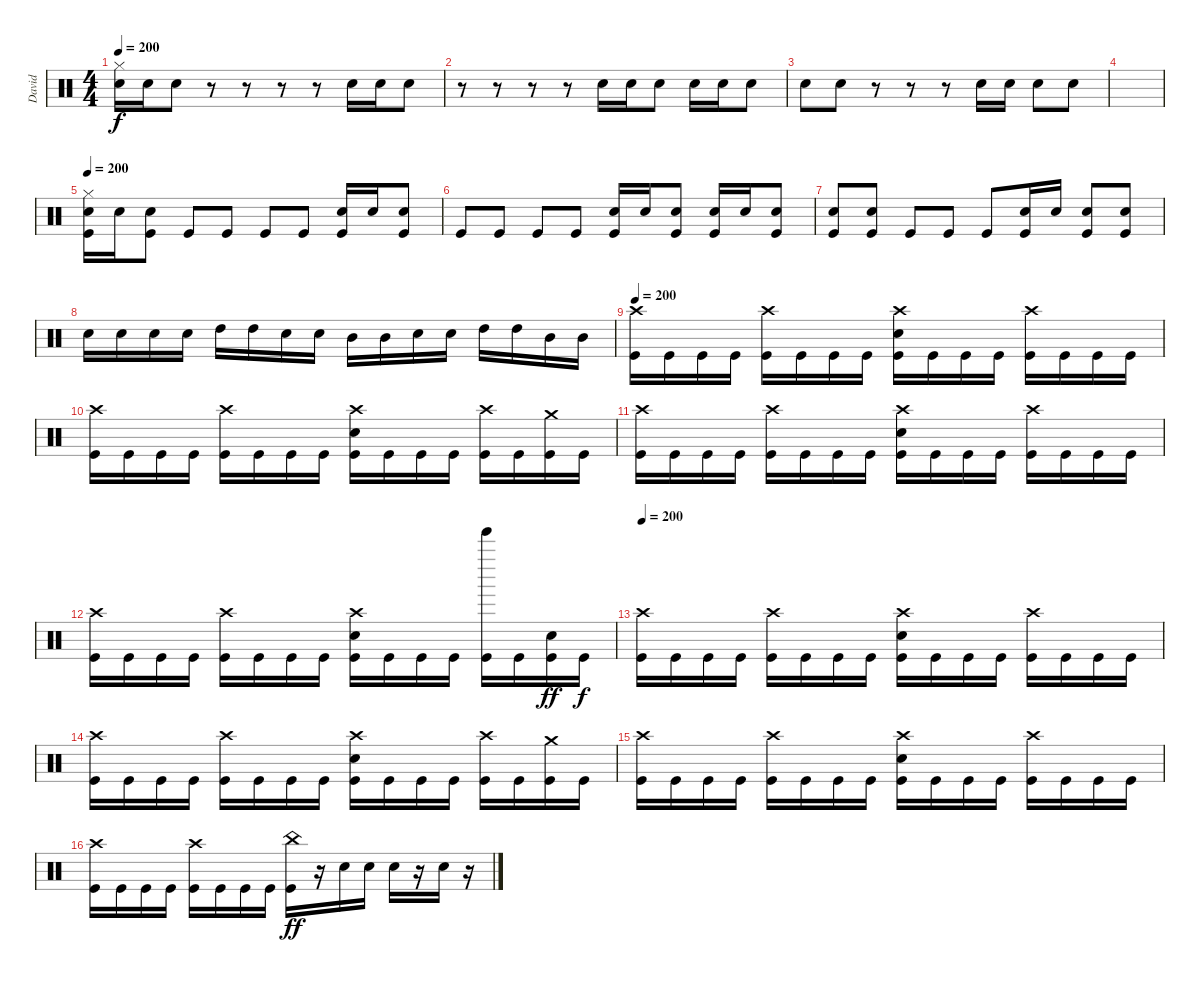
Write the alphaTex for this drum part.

\track ("David" "David") {instrument percussion}
\staff {score}
\articulation defaults
\ts (4 4)
\tempo 200
\clef neutral
\ks c
("Hi-Hat (closed)" "Electric Snare (hit)").16{dy f} "Electric Snare (hit)".16 "Electric Snare (hit)".8 r.8 r.8 r.8 r.8 "Electric Snare (hit)".16 "Electric Snare (hit)".16 "Electric Snare (hit)".8 |
r.8 r.8 r.8 r.8 "Electric Snare (hit)".16 "Electric Snare (hit)".16 "Electric Snare (hit)".8 "Electric Snare (hit)".16 "Electric Snare (hit)".16 "Electric Snare (hit)".8 |
"Electric Snare (hit)".8 "Electric Snare (hit)".8 r.8 r.8 r.8 "Electric Snare (hit)".16 "Electric Snare (hit)".16 "Electric Snare (hit)".8 "Electric Snare (hit)".8 |
|
\tempo 200
("Hi-Hat (closed)" "Electric Snare (hit)" "Kick (hit)").16 "Electric Snare (hit)".16 ("Electric Snare (hit)" "Kick (hit)").8 "Kick (hit)".8 "Kick (hit)".8 "Kick (hit)".8 "Kick (hit)".8 ("Electric Snare (hit)" "Kick (hit)").16 "Electric Snare (hit)".16 ("Electric Snare (hit)" "Kick (hit)").8 |
"Kick (hit)".8 "Kick (hit)".8 "Kick (hit)".8 "Kick (hit)".8 ("Electric Snare (hit)" "Kick (hit)").16 "Electric Snare (hit)".16 ("Electric Snare (hit)" "Kick (hit)").8 ("Electric Snare (hit)" "Kick (hit)").16 "Electric Snare (hit)".16 ("Electric Snare (hit)" "Kick (hit)").8 |
("Electric Snare (hit)" "Kick (hit)").8 ("Electric Snare (hit)" "Kick (hit)").8 "Kick (hit)".8 "Kick (hit)".8 "Kick (hit)".8 ("Electric Snare (hit)" "Kick (hit)").16 "Electric Snare (hit)".16 ("Electric Snare (hit)" "Kick (hit)").8 ("Electric Snare (hit)" "Kick (hit)").8 |
"Electric Snare (hit)".16 "Electric Snare (hit)".16 "Electric Snare (hit)".16 "Electric Snare (hit)".16 "High Tom (hit)".16 "High Tom (hit)".16 "Electric Snare (hit)".16 "Electric Snare (hit)".16 "Mid Tom (hit)".16 "Mid Tom (hit)".16 "Electric Snare (hit)".16 "Electric Snare (hit)".16 "High Tom (hit)".16 "High Tom (hit)".16 "Mid Tom (hit)".16 "Mid Tom (hit)".16 |
\tempo 200
("Crash high (hit)" "Kick (hit)").16 "Kick (hit)".16 "Kick (hit)".16 "Kick (hit)".16 ("Crash high (hit)" "Kick (hit)").16 "Kick (hit)".16 "Kick (hit)".16 "Kick (hit)".16 ("Crash high (hit)" "Electric Snare (hit)" "Kick (hit)").16 "Kick (hit)".16 "Kick (hit)".16 "Kick (hit)".16 ("Crash high (hit)" "Kick (hit)").16 "Kick (hit)".16 "Kick (hit)".16 "Kick (hit)".16 |
("Crash high (hit)" "Kick (hit)").16 "Kick (hit)".16 "Kick (hit)".16 "Kick (hit)".16 ("Crash high (hit)" "Kick (hit)").16 "Kick (hit)".16 "Kick (hit)".16 "Kick (hit)".16 ("Crash high (hit)" "Electric Snare (hit)" "Kick (hit)").16 "Kick (hit)".16 "Kick (hit)".16 "Kick (hit)".16 ("Crash high (hit)" "Kick (hit)").16 "Kick (hit)".16 ("Crash medium (hit)" "Kick (hit)").16 "Kick (hit)".16 |
("Crash high (hit)" "Kick (hit)").16 "Kick (hit)".16 "Kick (hit)".16 "Kick (hit)".16 ("Crash high (hit)" "Kick (hit)").16 "Kick (hit)".16 "Kick (hit)".16 "Kick (hit)".16 ("Crash high (hit)" "Electric Snare (hit)" "Kick (hit)").16 "Kick (hit)".16 "Kick (hit)".16 "Kick (hit)".16 ("Crash high (hit)" "Kick (hit)").16 "Kick (hit)".16 "Kick (hit)".16 "Kick (hit)".16 |
("Crash high (hit)" "Kick (hit)").16 "Kick (hit)".16 "Kick (hit)".16 "Kick (hit)".16 ("Crash high (hit)" "Kick (hit)").16 "Kick (hit)".16 "Kick (hit)".16 "Kick (hit)".16 ("Crash high (hit)" "Electric Snare (hit)" "Kick (hit)").16 "Kick (hit)".16 "Kick (hit)".16 "Kick (hit)".16 ("Tinkle Bell (hit)" "Kick (hit)").16 "Kick (hit)".16 ("Electric Snare (hit)" "Kick (hit)").16{dy ff} "Kick (hit)".16{dy f} |
\tempo 200
("Crash high (hit)" "Kick (hit)").16 "Kick (hit)".16 "Kick (hit)".16 "Kick (hit)".16 ("Crash high (hit)" "Kick (hit)").16 "Kick (hit)".16 "Kick (hit)".16 "Kick (hit)".16 ("Crash high (hit)" "Electric Snare (hit)" "Kick (hit)").16 "Kick (hit)".16 "Kick (hit)".16 "Kick (hit)".16 ("Crash high (hit)" "Kick (hit)").16 "Kick (hit)".16 "Kick (hit)".16 "Kick (hit)".16 |
("Crash high (hit)" "Kick (hit)").16 "Kick (hit)".16 "Kick (hit)".16 "Kick (hit)".16 ("Crash high (hit)" "Kick (hit)").16 "Kick (hit)".16 "Kick (hit)".16 "Kick (hit)".16 ("Crash high (hit)" "Electric Snare (hit)" "Kick (hit)").16 "Kick (hit)".16 "Kick (hit)".16 "Kick (hit)".16 ("Crash high (hit)" "Kick (hit)").16 "Kick (hit)".16 ("Crash medium (hit)" "Kick (hit)").16 "Kick (hit)".16 |
("Crash high (hit)" "Kick (hit)").16 "Kick (hit)".16 "Kick (hit)".16 "Kick (hit)".16 ("Crash high (hit)" "Kick (hit)").16 "Kick (hit)".16 "Kick (hit)".16 "Kick (hit)".16 ("Crash high (hit)" "Electric Snare (hit)" "Kick (hit)").16 "Kick (hit)".16 "Kick (hit)".16 "Kick (hit)".16 ("Crash high (hit)" "Kick (hit)").16 "Kick (hit)".16 "Kick (hit)".16 "Kick (hit)".16 |
("Crash high (hit)" "Kick (hit)").16 "Kick (hit)".16 "Kick (hit)".16 "Kick (hit)".16 ("Crash high (hit)" "Kick (hit)").16 "Kick (hit)".16 "Kick (hit)".16 "Kick (hit)".16 ("China (hit)" "Kick (hit)").16{dy ff} r.16 "Electric Snare (hit)".16 "Electric Snare (hit)".16 "Electric Snare (hit)".16 r.16 "Electric Snare (hit)".16 r.16
